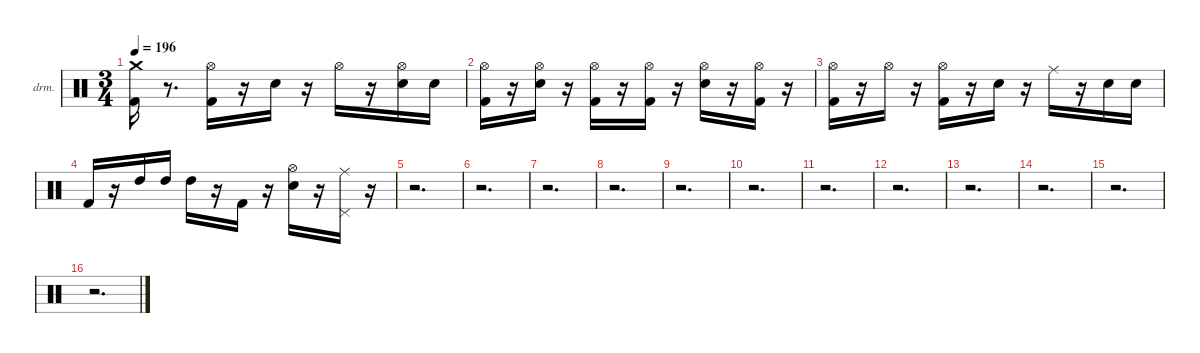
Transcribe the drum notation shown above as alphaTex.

\hideDynamics
\bracketExtendMode nobrackets
\firstSystemTrackNameOrientation horizontal
\otherSystemsTrackNameOrientation horizontal
\track ("EZdrummer 3" "drm.") {instrument percussion}
\staff {score}
\articulation defaults
\ts (3 4)
\tempo 196
\clef neutral
\ks aminor
("Kick (hit) 2" "Crash medium (hit)").16{dy fff beam Down} r.8{d beam Down} ("Kick (hit) 2" "Hi-Hat (open)"{acc #}).16{dy f beam Down} r.16{beam Down} "Snare (hit) 2".16{dy ff beam Down} r.16{beam Down} "Hi-Hat (open)"{acc #}.16{dy f beam Down} r.16{beam Down} ("Snare (hit) 2" "Hi-Hat (open)"{acc #}).16{beam Down} "Snare (hit) 2".16{dy mp beam Down} |
("Kick (hit) 2" "Hi-Hat (open)"{acc #}).16{dy fff beam Down} r.16{beam Down} ("Snare (hit) 2" "Hi-Hat (open)"{acc #}).16{dy ff beam Down} r.16{beam Down} ("Kick (hit) 2" "Hi-Hat (open)"{acc #}).16{dy mf beam Down} r.16{beam Down} ("Kick (hit) 2" "Hi-Hat (open)"{acc #}).16{dy fff beam Down} r.16{beam Down} ("Snare (hit) 2" "Hi-Hat (open)"{acc #}).16{dy ff beam Down} r.16{beam Down} ("Kick (hit) 2" "Hi-Hat (open)"{acc #}).16{dy mp beam Down} r.16{beam Down} |
("Kick (hit) 2" "Hi-Hat (open)"{acc #}).16{dy fff beam Down} r.16{beam Down} "Hi-Hat (open)"{acc #}.16{dy pp beam Down} r.16{beam Down} ("Kick (hit) 2" "Hi-Hat (open)"{acc #}).16{dy f beam Down} r.16{beam Down} "Snare (hit) 2".16{dy ff beam Down} r.16{beam Down} "Ride (middle)"{acc #}.16{beam Down} r.16{beam Down} "Snare (hit) 2".16{dy f beam Down} "Snare (hit) 2".16{dy mp beam Down} |
"Kick (hit) 2".16{dy fff beam Up} r.16{beam Up} "High Tom (hit)".16{dy ff beam Down} "High Tom (hit)".16{dy mf beam Down} "High Tom (hit)".16{dy fff beam Down} r.16{beam Down} "Kick (hit) 2".16{dy f beam Up} r.16{beam Up} ("Snare (hit) 2" "Hi-Hat (open)"{acc #}).16{dy ff beam Down} r.16{beam Down} ("Pedal Hi-Hat (hit)"{acc #} "Ride (middle)"{acc #}).16{beam Up} r.16{beam Up} |
r.2{d beam Down} |
r.2{d beam Down} |
r.2{d beam Down} |
r.2{d beam Down} |
r.2{d beam Down} |
r.2{d beam Down} |
r.2{d beam Down} |
r.2{d beam Down} |
r.2{d beam Down} |
r.2{d beam Down} |
r.2{d beam Down} |
r.2{d beam Down}
